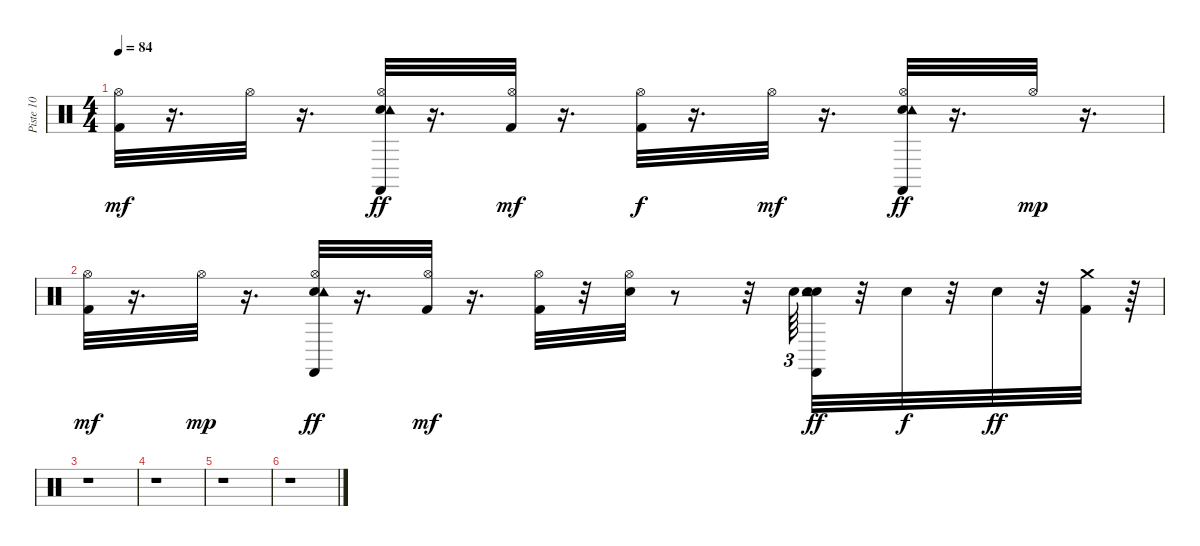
\track ("Piste 10" "Piste 10") {instrument percussion}
\staff {score}
\articulation defaults
\ts (4 4)
\tempo 84
\clef neutral
\ks c
("Kick (hit) 2" "Hi-Hat (open)").32{dy mf} r.16{d} "Hi-Hat (open)".32 r.16{d} ("Hi-Hat (open)" "Hand Clap (hit)" "Tambourine (hit)" "Castanets (hit)").32{dy ff} r.16{d} ("Hi-Hat (open)" "Kick (hit) 2").32{dy mf} r.16{d} ("Hi-Hat (open)" "Kick (hit) 2").32{dy f} r.16{d} "Hi-Hat (open)".32{dy mf} r.16{d} ("Hi-Hat (open)" "Hand Clap (hit)" "Tambourine (hit)" "Castanets (hit)").32{dy ff} r.16{d} "Hi-Hat (open)".32{dy mp} r.16{d} |
("Kick (hit) 2" "Hi-Hat (open)").32{dy mf} r.16{d} "Hi-Hat (open)".32{dy mp} r.16{d} ("Hi-Hat (open)" "Hand Clap (hit)" "Tambourine (hit)" "Castanets (hit)").32{dy ff} r.16{d} ("Hi-Hat (open)" "Kick (hit) 2").32{dy mf} r.16{d} ("Hi-Hat (open)" "Kick (hit) 2").32 r.32 ("Electric Snare (hit)" "Hi-Hat (open)").32 r.8 r.32 "Electric Snare (hit)".64{tu (3 2)} ("Hand Clap (hit)" "Electric Snare (hit)" "Tambourine (hit)" "Castanets (hit)").32{dy ff} r.32 "Electric Snare (hit)".32{dy f} r.32 "Electric Snare (hit)".32{dy ff} r.32 ("Kick (hit) 2" "Crash medium (hit)").32 r.64 |
r.1 |
r.1 |
r.1 |
r.1
